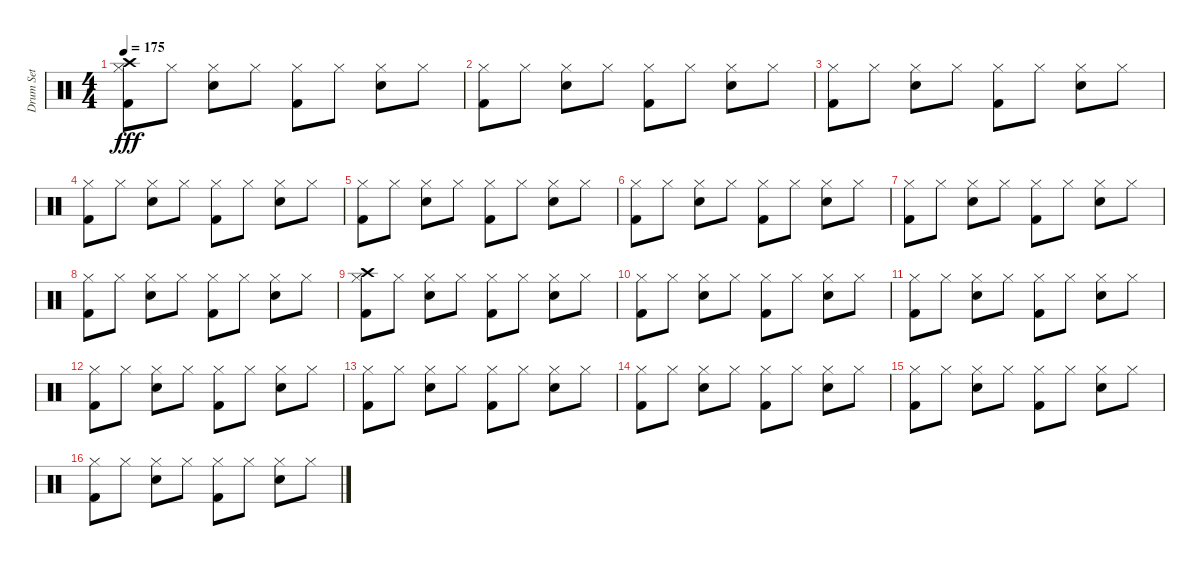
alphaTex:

\track ("Drum Set" "Drum Set") {instrument percussion}
\staff {score}
\articulation defaults
\ts (4 4)
\tempo 175
\clef neutral
\ks c
("Kick (hit) 2" "Crash high (hit)" "Hi-Hat (closed)").8{dy fff} "Hi-Hat (closed)".8 ("Electric Snare (hit)" "Hi-Hat (closed)").8 "Hi-Hat (closed)".8 ("Kick (hit) 2" "Hi-Hat (closed)").8 "Hi-Hat (closed)".8 ("Electric Snare (hit)" "Hi-Hat (closed)").8 "Hi-Hat (closed)".8 |
("Kick (hit) 2" "Hi-Hat (closed)").8 "Hi-Hat (closed)".8 ("Electric Snare (hit)" "Hi-Hat (closed)").8 "Hi-Hat (closed)".8 ("Kick (hit) 2" "Hi-Hat (closed)").8 "Hi-Hat (closed)".8 ("Electric Snare (hit)" "Hi-Hat (closed)").8 "Hi-Hat (closed)".8 |
("Kick (hit) 2" "Hi-Hat (closed)").8 "Hi-Hat (closed)".8 ("Electric Snare (hit)" "Hi-Hat (closed)").8 "Hi-Hat (closed)".8 ("Kick (hit) 2" "Hi-Hat (closed)").8 "Hi-Hat (closed)".8 ("Electric Snare (hit)" "Hi-Hat (closed)").8 "Hi-Hat (closed)".8 |
("Kick (hit) 2" "Hi-Hat (closed)").8 "Hi-Hat (closed)".8 ("Electric Snare (hit)" "Hi-Hat (closed)").8 "Hi-Hat (closed)".8 ("Kick (hit) 2" "Hi-Hat (closed)").8 "Hi-Hat (closed)".8 ("Electric Snare (hit)" "Hi-Hat (closed)").8 "Hi-Hat (closed)".8 |
("Kick (hit) 2" "Hi-Hat (closed)").8 "Hi-Hat (closed)".8 ("Electric Snare (hit)" "Hi-Hat (closed)").8 "Hi-Hat (closed)".8 ("Kick (hit) 2" "Hi-Hat (closed)").8 "Hi-Hat (closed)".8 ("Electric Snare (hit)" "Hi-Hat (closed)").8 "Hi-Hat (closed)".8 |
("Kick (hit) 2" "Hi-Hat (closed)").8 "Hi-Hat (closed)".8 ("Electric Snare (hit)" "Hi-Hat (closed)").8 "Hi-Hat (closed)".8 ("Kick (hit) 2" "Hi-Hat (closed)").8 "Hi-Hat (closed)".8 ("Electric Snare (hit)" "Hi-Hat (closed)").8 "Hi-Hat (closed)".8 |
("Kick (hit) 2" "Hi-Hat (closed)").8 "Hi-Hat (closed)".8 ("Electric Snare (hit)" "Hi-Hat (closed)").8 "Hi-Hat (closed)".8 ("Kick (hit) 2" "Hi-Hat (closed)").8 "Hi-Hat (closed)".8 ("Electric Snare (hit)" "Hi-Hat (closed)").8 "Hi-Hat (closed)".8 |
("Kick (hit) 2" "Hi-Hat (closed)").8 "Hi-Hat (closed)".8 ("Electric Snare (hit)" "Hi-Hat (closed)").8 "Hi-Hat (closed)".8 ("Kick (hit) 2" "Hi-Hat (closed)").8 "Hi-Hat (closed)".8 ("Electric Snare (hit)" "Hi-Hat (closed)").8 "Hi-Hat (closed)".8 |
("Kick (hit) 2" "Crash high (hit)" "Hi-Hat (closed)").8 "Hi-Hat (closed)".8 ("Electric Snare (hit)" "Hi-Hat (closed)").8 "Hi-Hat (closed)".8 ("Kick (hit) 2" "Hi-Hat (closed)").8 "Hi-Hat (closed)".8 ("Electric Snare (hit)" "Hi-Hat (closed)").8 "Hi-Hat (closed)".8 |
("Kick (hit) 2" "Hi-Hat (closed)").8 "Hi-Hat (closed)".8 ("Electric Snare (hit)" "Hi-Hat (closed)").8 "Hi-Hat (closed)".8 ("Kick (hit) 2" "Hi-Hat (closed)").8 "Hi-Hat (closed)".8 ("Electric Snare (hit)" "Hi-Hat (closed)").8 "Hi-Hat (closed)".8 |
("Kick (hit) 2" "Hi-Hat (closed)").8 "Hi-Hat (closed)".8 ("Electric Snare (hit)" "Hi-Hat (closed)").8 "Hi-Hat (closed)".8 ("Kick (hit) 2" "Hi-Hat (closed)").8 "Hi-Hat (closed)".8 ("Electric Snare (hit)" "Hi-Hat (closed)").8 "Hi-Hat (closed)".8 |
("Kick (hit) 2" "Hi-Hat (closed)").8 "Hi-Hat (closed)".8 ("Electric Snare (hit)" "Hi-Hat (closed)").8 "Hi-Hat (closed)".8 ("Kick (hit) 2" "Hi-Hat (closed)").8 "Hi-Hat (closed)".8 ("Electric Snare (hit)" "Hi-Hat (closed)").8 "Hi-Hat (closed)".8 |
("Kick (hit) 2" "Hi-Hat (closed)").8 "Hi-Hat (closed)".8 ("Electric Snare (hit)" "Hi-Hat (closed)").8 "Hi-Hat (closed)".8 ("Kick (hit) 2" "Hi-Hat (closed)").8 "Hi-Hat (closed)".8 ("Electric Snare (hit)" "Hi-Hat (closed)").8 "Hi-Hat (closed)".8 |
("Kick (hit) 2" "Hi-Hat (closed)").8 "Hi-Hat (closed)".8 ("Electric Snare (hit)" "Hi-Hat (closed)").8 "Hi-Hat (closed)".8 ("Kick (hit) 2" "Hi-Hat (closed)").8 "Hi-Hat (closed)".8 ("Electric Snare (hit)" "Hi-Hat (closed)").8 "Hi-Hat (closed)".8 |
("Kick (hit) 2" "Hi-Hat (closed)").8 "Hi-Hat (closed)".8 ("Electric Snare (hit)" "Hi-Hat (closed)").8 "Hi-Hat (closed)".8 ("Kick (hit) 2" "Hi-Hat (closed)").8 "Hi-Hat (closed)".8 ("Electric Snare (hit)" "Hi-Hat (closed)").8 "Hi-Hat (closed)".8 |
("Kick (hit) 2" "Hi-Hat (closed)").8 "Hi-Hat (closed)".8 ("Electric Snare (hit)" "Hi-Hat (closed)").8 "Hi-Hat (closed)".8 ("Kick (hit) 2" "Hi-Hat (closed)").8 "Hi-Hat (closed)".8 ("Electric Snare (hit)" "Hi-Hat (closed)").8 "Hi-Hat (closed)".8
